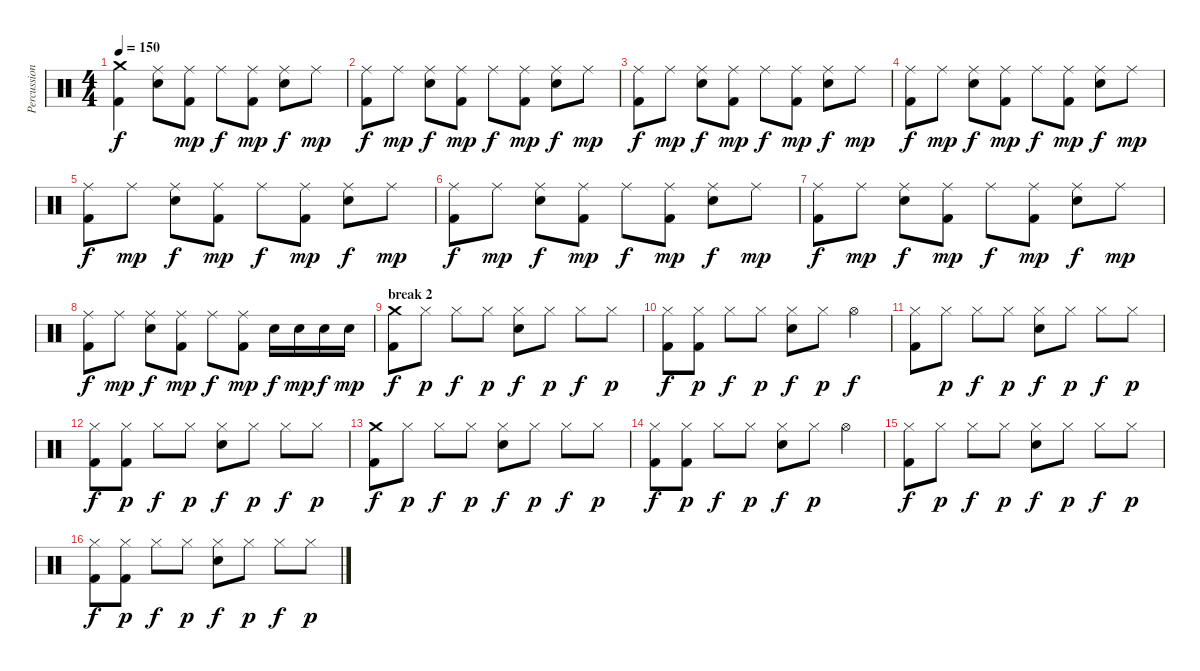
\track ("Percussions" "Percussion") {instrument percussion}
\staff {score}
\articulation defaults
\ts (4 4)
\tempo 150
\clef neutral
\ks c
("Crash medium (hit)" "Kick (hit) 2").4{dy f} ("Ride (middle)" "Electric Snare (hit)").8 ("Ride (middle)" "Kick (hit) 2").8{dy mp} "Ride (middle)".8{dy f} ("Ride (middle)" "Kick (hit) 2").8{dy mp} ("Ride (middle)" "Electric Snare (hit)").8{dy f} "Ride (middle)".8{dy mp} |
("Ride (middle)" "Kick (hit) 2").8{dy f} "Ride (middle)".8{dy mp} ("Ride (middle)" "Electric Snare (hit)").8{dy f} ("Ride (middle)" "Kick (hit) 2").8{dy mp} "Ride (middle)".8{dy f} ("Ride (middle)" "Kick (hit) 2").8{dy mp} ("Ride (middle)" "Electric Snare (hit)").8{dy f} "Ride (middle)".8{dy mp} |
("Ride (middle)" "Kick (hit) 2").8{dy f} "Ride (middle)".8{dy mp} ("Ride (middle)" "Electric Snare (hit)").8{dy f} ("Ride (middle)" "Kick (hit) 2").8{dy mp} "Ride (middle)".8{dy f} ("Ride (middle)" "Kick (hit) 2").8{dy mp} ("Ride (middle)" "Electric Snare (hit)").8{dy f} "Ride (middle)".8{dy mp} |
("Ride (middle)" "Kick (hit) 2").8{dy f} "Ride (middle)".8{dy mp} ("Ride (middle)" "Electric Snare (hit)").8{dy f} ("Ride (middle)" "Kick (hit) 2").8{dy mp} "Ride (middle)".8{dy f} ("Ride (middle)" "Kick (hit) 2").8{dy mp} ("Ride (middle)" "Electric Snare (hit)").8{dy f} "Ride (middle)".8{dy mp} |
("Ride (middle)" "Kick (hit) 2").8{dy f} "Ride (middle)".8{dy mp} ("Ride (middle)" "Electric Snare (hit)").8{dy f} ("Ride (middle)" "Kick (hit) 2").8{dy mp} "Ride (middle)".8{dy f} ("Ride (middle)" "Kick (hit) 2").8{dy mp} ("Ride (middle)" "Electric Snare (hit)").8{dy f} "Ride (middle)".8{dy mp} |
("Ride (middle)" "Kick (hit) 2").8{dy f} "Ride (middle)".8{dy mp} ("Ride (middle)" "Electric Snare (hit)").8{dy f} ("Ride (middle)" "Kick (hit) 2").8{dy mp} "Ride (middle)".8{dy f} ("Ride (middle)" "Kick (hit) 2").8{dy mp} ("Ride (middle)" "Electric Snare (hit)").8{dy f} "Ride (middle)".8{dy mp} |
("Ride (middle)" "Kick (hit) 2").8{dy f} "Ride (middle)".8{dy mp} ("Ride (middle)" "Electric Snare (hit)").8{dy f} ("Ride (middle)" "Kick (hit) 2").8{dy mp} "Ride (middle)".8{dy f} ("Ride (middle)" "Kick (hit) 2").8{dy mp} ("Ride (middle)" "Electric Snare (hit)").8{dy f} "Ride (middle)".8{dy mp} |
("Ride (middle)" "Kick (hit) 2").8{dy f} "Ride (middle)".8{dy mp} ("Ride (middle)" "Electric Snare (hit)").8{dy f} ("Ride (middle)" "Kick (hit) 2").8{dy mp} "Ride (middle)".8{dy f} ("Ride (middle)" "Kick (hit) 2").8{dy mp} "Electric Snare (hit)".16{dy f} "Electric Snare (hit)".16{dy mp} "Electric Snare (hit)".16{dy f} "Electric Snare (hit)".16{dy mp} |
\section ("" "break 2")
("Crash medium (hit)" "Kick (hit) 2").8{dy f} "Hi-Hat (closed)".8{dy p} "Hi-Hat (closed)".8{dy f} "Hi-Hat (closed)".8{dy p} ("Hi-Hat (closed)" "Electric Snare (hit)").8{dy f} "Hi-Hat (closed)".8{dy p} "Hi-Hat (closed)".8{dy f} "Hi-Hat (closed)".8{dy p} |
("Hi-Hat (closed)" "Kick (hit) 2").8{dy f} ("Hi-Hat (closed)" "Kick (hit) 2").8{dy p} "Hi-Hat (closed)".8{dy f} "Hi-Hat (closed)".8{dy p} ("Hi-Hat (closed)" "Electric Snare (hit)").8{dy f} "Hi-Hat (closed)".8{dy p} "Hi-Hat (open)".4{dy f} |
("Hi-Hat (closed)" "Kick (hit) 2").8 "Hi-Hat (closed)".8{dy p} "Hi-Hat (closed)".8{dy f} "Hi-Hat (closed)".8{dy p} ("Hi-Hat (closed)" "Electric Snare (hit)").8{dy f} "Hi-Hat (closed)".8{dy p} "Hi-Hat (closed)".8{dy f} "Hi-Hat (closed)".8{dy p} |
("Hi-Hat (closed)" "Kick (hit) 2").8{dy f} ("Hi-Hat (closed)" "Kick (hit) 2").8{dy p} "Hi-Hat (closed)".8{dy f} "Hi-Hat (closed)".8{dy p} ("Hi-Hat (closed)" "Electric Snare (hit)").8{dy f} "Hi-Hat (closed)".8{dy p} "Hi-Hat (closed)".8{dy f} "Hi-Hat (closed)".8{dy p} |
("Crash medium (hit)" "Kick (hit) 2").8{dy f} "Hi-Hat (closed)".8{dy p} "Hi-Hat (closed)".8{dy f} "Hi-Hat (closed)".8{dy p} ("Hi-Hat (closed)" "Electric Snare (hit)").8{dy f} "Hi-Hat (closed)".8{dy p} "Hi-Hat (closed)".8{dy f} "Hi-Hat (closed)".8{dy p} |
("Hi-Hat (closed)" "Kick (hit) 2").8{dy f} ("Hi-Hat (closed)" "Kick (hit) 2").8{dy p} "Hi-Hat (closed)".8{dy f} "Hi-Hat (closed)".8{dy p} ("Hi-Hat (closed)" "Electric Snare (hit)").8{dy f} "Hi-Hat (closed)".8{dy p} "Hi-Hat (open)".4 |
("Hi-Hat (closed)" "Kick (hit) 2").8{dy f} "Hi-Hat (closed)".8{dy p} "Hi-Hat (closed)".8{dy f} "Hi-Hat (closed)".8{dy p} ("Hi-Hat (closed)" "Electric Snare (hit)").8{dy f} "Hi-Hat (closed)".8{dy p} "Hi-Hat (closed)".8{dy f} "Hi-Hat (closed)".8{dy p} |
("Hi-Hat (closed)" "Kick (hit) 2").8{dy f} ("Hi-Hat (closed)" "Kick (hit) 2").8{dy p} "Hi-Hat (closed)".8{dy f} "Hi-Hat (closed)".8{dy p} ("Hi-Hat (closed)" "Electric Snare (hit)").8{dy f} "Hi-Hat (closed)".8{dy p} "Hi-Hat (closed)".8{dy f} "Hi-Hat (closed)".8{dy p}
